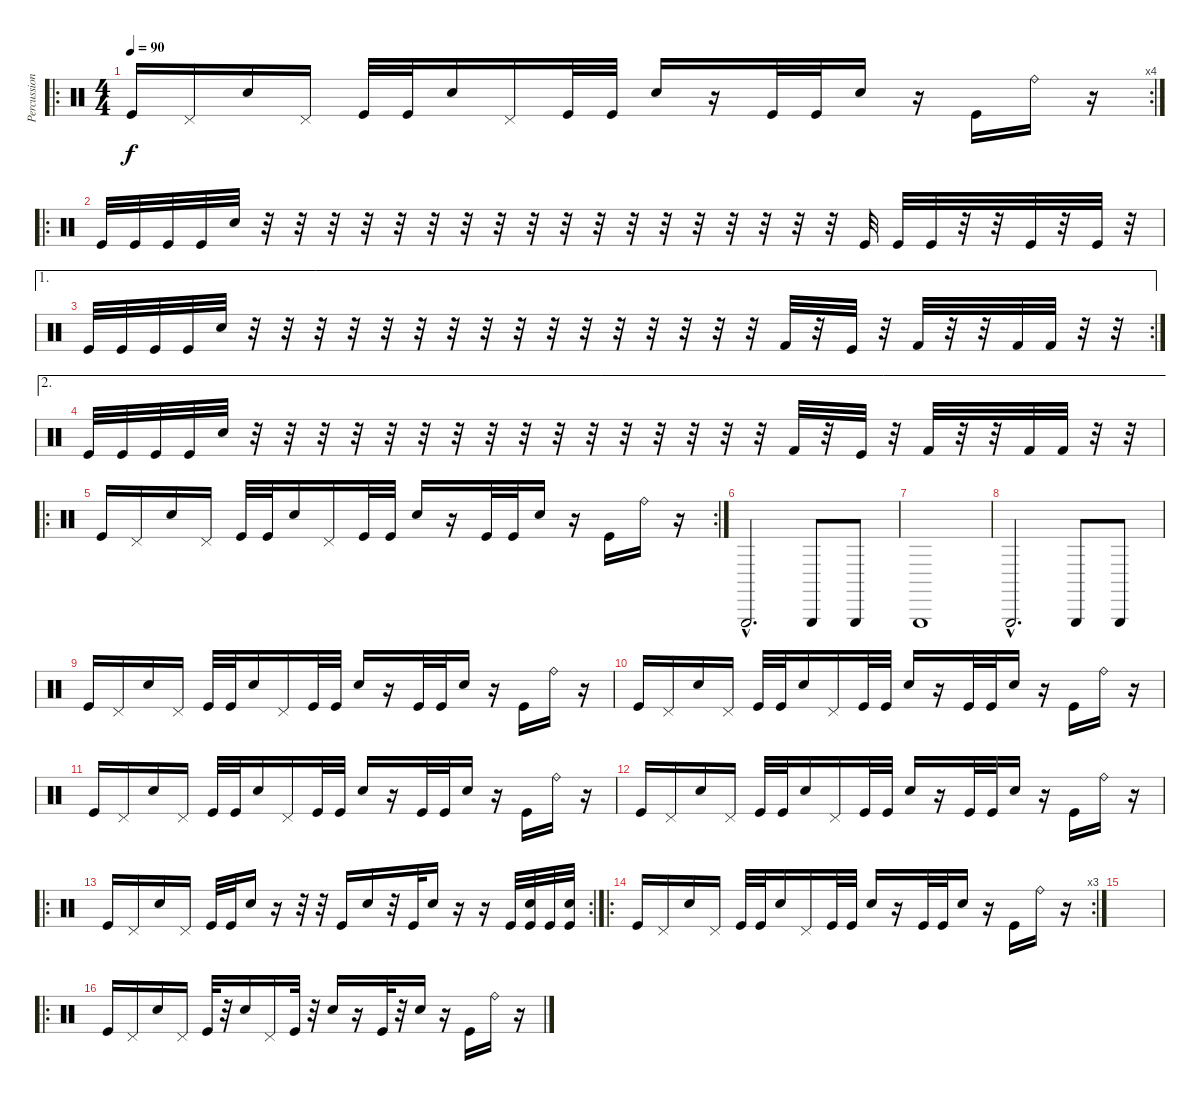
\track ("Percussions" "Percussion") {instrument percussion}
\staff {score}
\articulation defaults
\ro
\rc 4
\ts (4 4)
\tempo 90
\clef neutral
\ks c "Kick (hit)".16{dy f} "Pedal Hi-Hat (hit)".16 "Electric Snare (hit)".16 "Pedal Hi-Hat (hit)".16 "Kick (hit)".32 "Kick (hit)".32 "Electric Snare (hit)".16 "Pedal Hi-Hat (hit)".16 "Kick (hit)".32 "Kick (hit)".32 "Electric Snare (hit)".16
r.16 "Kick (hit)".32 "Kick (hit)".32 "Electric Snare (hit)".16 r.16 "Kick (hit)".16 "Ride (bell)".16 r.16 |
\ro "Kick (hit)".32 "Kick (hit)".32 "Kick (hit)".32 "Kick (hit)".32 "Electric Snare (hit)".32
r.32 r.32 r.32 r.32 r.32 r.32 r.32 r.32 r.32 r.32 r.32 r.32 r.32 r.32 r.32 r.32 r.32 r.32 "Kick (hit)".32 "Kick (hit)".32 "Kick (hit)".32 r.32 r.32 "Kick (hit)".32 r.32 "Kick (hit)".32 r.32 |
\ae 1
\rc 2 "Kick (hit)".32 "Kick (hit)".32 "Kick (hit)".32 "Kick (hit)".32 "Electric Snare (hit)".32
r.32 r.32 r.32 r.32 r.32 r.32 r.32 r.32 r.32 r.32 r.32 r.32 r.32 r.32 r.32 r.32 "Kick (hit) 2".32 r.32 "Kick (hit)".32 r.32 "Kick (hit) 2".32 r.32 r.32 "Kick (hit) 2".32 "Kick (hit) 2".32 r.32 r.32 |
\ae 2 "Kick (hit)".32 "Kick (hit)".32 "Kick (hit)".32 "Kick (hit)".32 "Electric Snare (hit)".32
r.32 r.32 r.32 r.32 r.32 r.32 r.32 r.32 r.32 r.32 r.32 r.32 r.32 r.32 r.32 r.32 "Kick (hit) 2".32 r.32 "Kick (hit)".32 r.32 "Kick (hit) 2".32 r.32 r.32 "Kick (hit) 2".32 "Kick (hit) 2".32 r.32 r.32 |
\ro
\rc 2 "Kick (hit)".16 "Pedal Hi-Hat (hit)".16 "Electric Snare (hit)".16 "Pedal Hi-Hat (hit)".16 "Kick (hit)".32 "Kick (hit)".32 "Electric Snare (hit)".16 "Pedal Hi-Hat (hit)".16 "Kick (hit)".32 "Kick (hit)".32 "Electric Snare (hit)".16
r.16 "Kick (hit)".32 "Kick (hit)".32 "Electric Snare (hit)".16 r.16 "Kick (hit)".16 "Ride (bell)".16 r.16 |
"Triangle (hit)"{hac}.2{d} "Triangle (hit)".8 "Triangle (hit)".8 |
"Triangle (hit)".1 |
"Triangle (hit)"{hac}.2{d} "Triangle (hit)".8 "Triangle (hit)".8 |
"Kick (hit)".16 "Pedal Hi-Hat (hit)".16 "Electric Snare (hit)".16 "Pedal Hi-Hat (hit)".16 "Kick (hit)".32 "Kick (hit)".32 "Electric Snare (hit)".16 "Pedal Hi-Hat (hit)".16 "Kick (hit)".32 "Kick (hit)".32 "Electric Snare (hit)".16 r.16 "Kick (hit)".32 "Kick (hit)".32 "Electric Snare (hit)".16 r.16 "Kick (hit)".16 "Ride (bell)".16 r.16 |
"Kick (hit)".16 "Pedal Hi-Hat (hit)".16 "Electric Snare (hit)".16 "Pedal Hi-Hat (hit)".16 "Kick (hit)".32 "Kick (hit)".32 "Electric Snare (hit)".16 "Pedal Hi-Hat (hit)".16 "Kick (hit)".32 "Kick (hit)".32 "Electric Snare (hit)".16 r.16 "Kick (hit)".32 "Kick (hit)".32 "Electric Snare (hit)".16 r.16 "Kick (hit)".16 "Ride (bell)".16 r.16 |
"Kick (hit)".16 "Pedal Hi-Hat (hit)".16 "Electric Snare (hit)".16 "Pedal Hi-Hat (hit)".16 "Kick (hit)".32 "Kick (hit)".32 "Electric Snare (hit)".16 "Pedal Hi-Hat (hit)".16 "Kick (hit)".32 "Kick (hit)".32 "Electric Snare (hit)".16 r.16 "Kick (hit)".32 "Kick (hit)".32 "Electric Snare (hit)".16 r.16 "Kick (hit)".16 "Ride (bell)".16 r.16 |
"Kick (hit)".16 "Pedal Hi-Hat (hit)".16 "Electric Snare (hit)".16 "Pedal Hi-Hat (hit)".16 "Kick (hit)".32 "Kick (hit)".32 "Electric Snare (hit)".16 "Pedal Hi-Hat (hit)".16 "Kick (hit)".32 "Kick (hit)".32 "Electric Snare (hit)".16 r.16 "Kick (hit)".32 "Kick (hit)".32 "Electric Snare (hit)".16 r.16 "Kick (hit)".16 "Ride (bell)".16 r.16 |
\ro
\rc 2 "Kick (hit)".16 "Pedal Hi-Hat (hit)".16 "Electric Snare (hit)".16 "Pedal Hi-Hat (hit)".16 "Kick (hit)".32 "Kick (hit)".32 "Electric Snare (hit)".16
r.16 r.32 r.32 "Kick (hit)".16 "Electric Snare (hit)".16 r.32 "Kick (hit)".32 "Electric Snare (hit)".16 r.16 r.16 "Kick (hit)".32 ("Electric Snare (hit)" "Kick (hit)").32 "Kick (hit)".32 ("Electric Snare (hit)" "Kick (hit)").32 |
\ro
\rc 3 "Kick (hit)".16 "Pedal Hi-Hat (hit)".16 "Electric Snare (hit)".16 "Pedal Hi-Hat (hit)".16 "Kick (hit)".32 "Kick (hit)".32 "Electric Snare (hit)".16 "Pedal Hi-Hat (hit)".16 "Kick (hit)".32 "Kick (hit)".32 "Electric Snare (hit)".16
r.16 "Kick (hit)".32 "Kick (hit)".32 "Electric Snare (hit)".16 r.16 "Kick (hit)".16 "Ride (bell)".16 r.16 |
|
\ro "Kick (hit)".16 "Pedal Hi-Hat (hit)".16 "Electric Snare (hit)".16 "Pedal Hi-Hat (hit)".16 "Kick (hit)".32
r.32 "Electric Snare (hit)".16 "Pedal Hi-Hat (hit)".16 "Kick (hit)".32 r.32 "Electric Snare (hit)".16 r.16 "Kick (hit)".32 r.32 "Electric Snare (hit)".16 r.16 "Kick (hit)".16 "Ride (bell)".16 r.16
